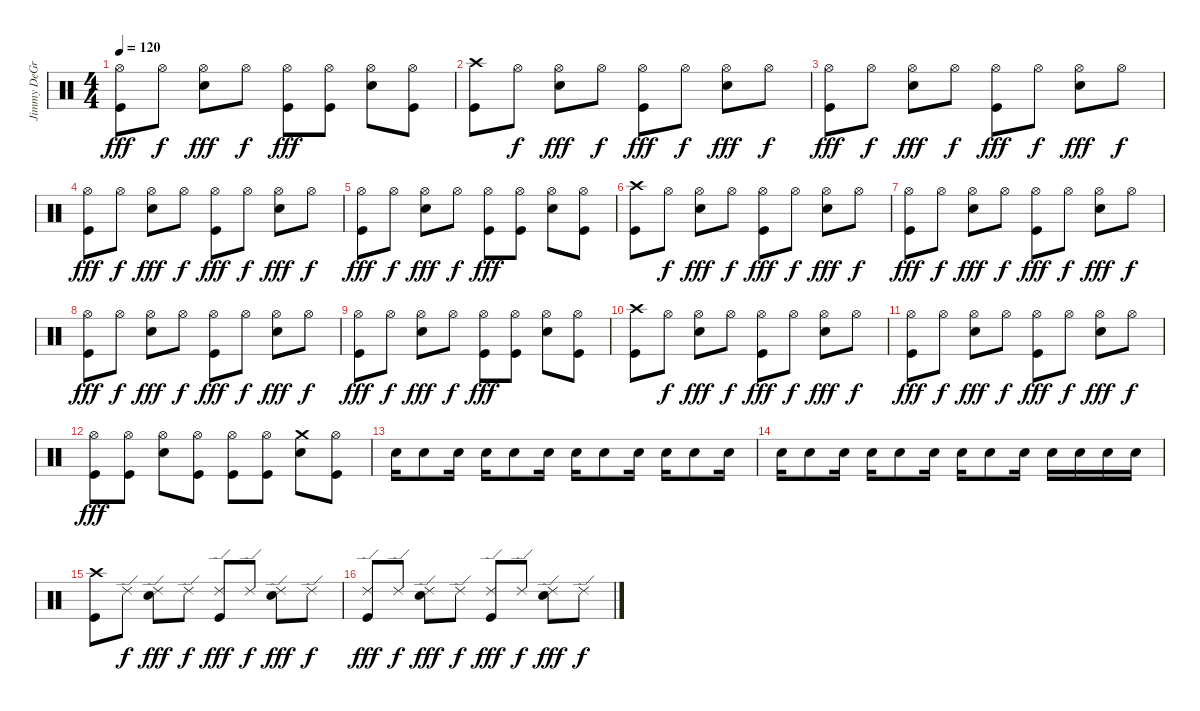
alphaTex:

\track ("Jimmy DeGrasso" "Jimmy DeGr") {instrument percussion}
\staff {score}
\articulation defaults
\ts (4 4)
\tempo 120
\clef neutral
\ks c
("Kick (hit)" "Hi-Hat (open)").8{dy fff} "Hi-Hat (open)".8{dy f} ("Electric Snare (hit)" "Hi-Hat (open)").8{dy fff} "Hi-Hat (open)".8{dy f} ("Kick (hit)" "Hi-Hat (open)").8{dy fff} ("Kick (hit)" "Hi-Hat (open)").8 ("Electric Snare (hit)" "Hi-Hat (open)").8 ("Kick (hit)" "Hi-Hat (open)").8 |
("Kick (hit)" "Crash high (hit)").8 "Hi-Hat (open)".8{dy f} ("Electric Snare (hit)" "Hi-Hat (open)").8{dy fff} "Hi-Hat (open)".8{dy f} ("Kick (hit)" "Hi-Hat (open)").8{dy fff} "Hi-Hat (open)".8{dy f} ("Electric Snare (hit)" "Hi-Hat (open)").8{dy fff} "Hi-Hat (open)".8{dy f} |
("Kick (hit)" "Hi-Hat (open)").8{dy fff} "Hi-Hat (open)".8{dy f} ("Electric Snare (hit)" "Hi-Hat (open)").8{dy fff} "Hi-Hat (open)".8{dy f} ("Kick (hit)" "Hi-Hat (open)").8{dy fff} "Hi-Hat (open)".8{dy f} ("Electric Snare (hit)" "Hi-Hat (open)").8{dy fff} "Hi-Hat (open)".8{dy f} |
("Kick (hit)" "Hi-Hat (open)").8{dy fff} "Hi-Hat (open)".8{dy f} ("Electric Snare (hit)" "Hi-Hat (open)").8{dy fff} "Hi-Hat (open)".8{dy f} ("Kick (hit)" "Hi-Hat (open)").8{dy fff} "Hi-Hat (open)".8{dy f} ("Electric Snare (hit)" "Hi-Hat (open)").8{dy fff} "Hi-Hat (open)".8{dy f} |
("Kick (hit)" "Hi-Hat (open)").8{dy fff} "Hi-Hat (open)".8{dy f} ("Electric Snare (hit)" "Hi-Hat (open)").8{dy fff} "Hi-Hat (open)".8{dy f} ("Kick (hit)" "Hi-Hat (open)").8{dy fff} ("Kick (hit)" "Hi-Hat (open)").8 ("Electric Snare (hit)" "Hi-Hat (open)").8 ("Kick (hit)" "Hi-Hat (open)").8 |
("Kick (hit)" "Crash high (hit)").8 "Hi-Hat (open)".8{dy f} ("Electric Snare (hit)" "Hi-Hat (open)").8{dy fff} "Hi-Hat (open)".8{dy f} ("Kick (hit)" "Hi-Hat (open)").8{dy fff} "Hi-Hat (open)".8{dy f} ("Electric Snare (hit)" "Hi-Hat (open)").8{dy fff} "Hi-Hat (open)".8{dy f} |
("Kick (hit)" "Hi-Hat (open)").8{dy fff} "Hi-Hat (open)".8{dy f} ("Electric Snare (hit)" "Hi-Hat (open)").8{dy fff} "Hi-Hat (open)".8{dy f} ("Kick (hit)" "Hi-Hat (open)").8{dy fff} "Hi-Hat (open)".8{dy f} ("Electric Snare (hit)" "Hi-Hat (open)").8{dy fff} "Hi-Hat (open)".8{dy f} |
("Kick (hit)" "Hi-Hat (open)").8{dy fff} "Hi-Hat (open)".8{dy f} ("Electric Snare (hit)" "Hi-Hat (open)").8{dy fff} "Hi-Hat (open)".8{dy f} ("Kick (hit)" "Hi-Hat (open)").8{dy fff} "Hi-Hat (open)".8{dy f} ("Electric Snare (hit)" "Hi-Hat (open)").8{dy fff} "Hi-Hat (open)".8{dy f} |
("Kick (hit)" "Hi-Hat (open)").8{dy fff} "Hi-Hat (open)".8{dy f} ("Electric Snare (hit)" "Hi-Hat (open)").8{dy fff} "Hi-Hat (open)".8{dy f} ("Kick (hit)" "Hi-Hat (open)").8{dy fff} ("Kick (hit)" "Hi-Hat (open)").8 ("Electric Snare (hit)" "Hi-Hat (open)").8 ("Kick (hit)" "Hi-Hat (open)").8 |
("Kick (hit)" "Crash high (hit)").8 "Hi-Hat (open)".8{dy f} ("Electric Snare (hit)" "Hi-Hat (open)").8{dy fff} "Hi-Hat (open)".8{dy f} ("Kick (hit)" "Hi-Hat (open)").8{dy fff} "Hi-Hat (open)".8{dy f} ("Electric Snare (hit)" "Hi-Hat (open)").8{dy fff} "Hi-Hat (open)".8{dy f} |
("Kick (hit)" "Hi-Hat (open)").8{dy fff} "Hi-Hat (open)".8{dy f} ("Electric Snare (hit)" "Hi-Hat (open)").8{dy fff} "Hi-Hat (open)".8{dy f} ("Kick (hit)" "Hi-Hat (open)").8{dy fff} "Hi-Hat (open)".8{dy f} ("Electric Snare (hit)" "Hi-Hat (open)").8{dy fff} "Hi-Hat (open)".8{dy f} |
("Kick (hit)" "Hi-Hat (open)").8{dy fff} ("Kick (hit)" "Hi-Hat (open)").8 ("Electric Snare (hit)" "Hi-Hat (open)").8 ("Kick (hit)" "Hi-Hat (open)").8 ("Kick (hit)" "Hi-Hat (open)").8 ("Kick (hit)" "Hi-Hat (open)").8 ("Electric Snare (hit)" "Crash medium (hit)").8 ("Kick (hit)" "Hi-Hat (open)").8 |
"Electric Snare (hit)".16 "Electric Snare (hit)".8 "Electric Snare (hit)".16 "Electric Snare (hit)".16 "Electric Snare (hit)".8 "Electric Snare (hit)".16 "Electric Snare (hit)".16 "Electric Snare (hit)".8 "Electric Snare (hit)".16 "Electric Snare (hit)".16 "Electric Snare (hit)".8 "Electric Snare (hit)".16 |
"Electric Snare (hit)".16 "Electric Snare (hit)".8 "Electric Snare (hit)".16 "Electric Snare (hit)".16 "Electric Snare (hit)".8 "Electric Snare (hit)".16 "Electric Snare (hit)".16 "Electric Snare (hit)".8 "Electric Snare (hit)".16 "Electric Snare (hit)".16 "Electric Snare (hit)".16 "Electric Snare (hit)".16 "Electric Snare (hit)".16 |
("Kick (hit)" "Crash high (hit)").8 "Ride (edge) 2".8{dy f} ("Electric Snare (hit)" "Ride (edge) 2").8{dy fff} "Ride (edge) 2".8{dy f} ("Kick (hit)" "Ride (edge) 2").8{dy fff} "Ride (edge) 2".8{dy f} ("Electric Snare (hit)" "Ride (edge) 2").8{dy fff} "Ride (edge) 2".8{dy f} |
("Kick (hit)" "Ride (edge) 2").8{dy fff} "Ride (edge) 2".8{dy f} ("Electric Snare (hit)" "Ride (edge) 2").8{dy fff} "Ride (edge) 2".8{dy f} ("Kick (hit)" "Ride (edge) 2").8{dy fff} "Ride (edge) 2".8{dy f} ("Electric Snare (hit)" "Ride (edge) 2").8{dy fff} "Ride (edge) 2".8{dy f}
